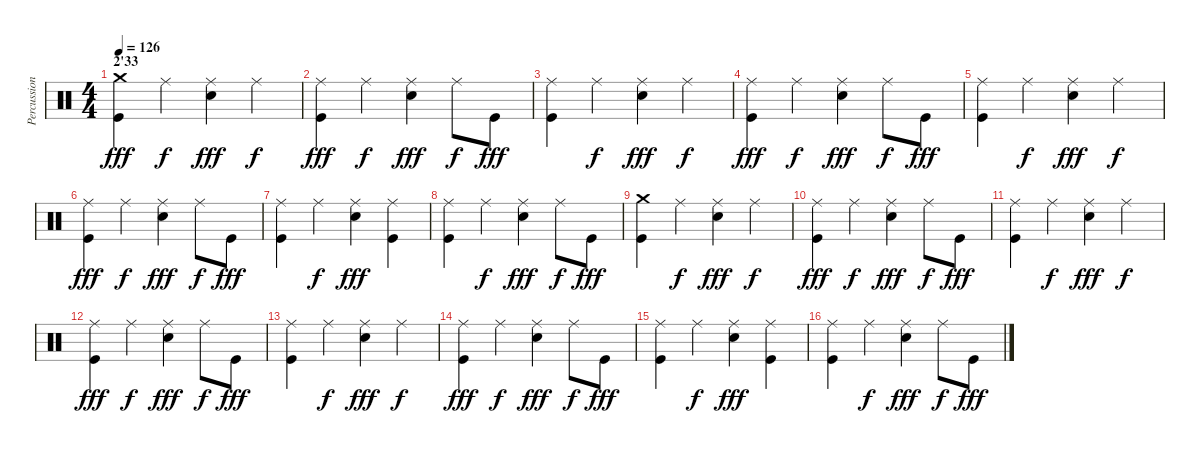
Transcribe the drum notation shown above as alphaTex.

\track ("Percussions" "Percussion") {instrument percussion}
\staff {score}
\articulation defaults
\ts (4 4)
\section ("" "2'33")
\tempo 126
\clef neutral
\ks c
("Crash medium (hit)" "Kick (hit)").4{dy fff} "Ride (middle)".4{dy f} ("Ride (middle)" "Electric Snare (hit)").4{dy fff} "Ride (middle)".4{dy f} |
("Ride (middle)" "Kick (hit)").4{dy fff} "Ride (middle)".4{dy f} ("Ride (middle)" "Electric Snare (hit)").4{dy fff} "Ride (middle)".8{dy f} "Kick (hit)".8{dy fff} |
("Ride (middle)" "Kick (hit)").4 "Ride (middle)".4{dy f} ("Ride (middle)" "Electric Snare (hit)").4{dy fff} "Ride (middle)".4{dy f} |
("Ride (middle)" "Kick (hit)").4{dy fff} "Ride (middle)".4{dy f} ("Ride (middle)" "Electric Snare (hit)").4{dy fff} "Ride (middle)".8{dy f} "Kick (hit)".8{dy fff} |
("Ride (middle)" "Kick (hit)").4 "Ride (middle)".4{dy f} ("Ride (middle)" "Electric Snare (hit)").4{dy fff} "Ride (middle)".4{dy f} |
("Ride (middle)" "Kick (hit)").4{dy fff} "Ride (middle)".4{dy f} ("Ride (middle)" "Electric Snare (hit)").4{dy fff} "Ride (middle)".8{dy f} "Kick (hit)".8{dy fff} |
("Ride (middle)" "Kick (hit)").4 "Ride (middle)".4{dy f} ("Ride (middle)" "Electric Snare (hit)").4{dy fff} ("Ride (middle)" "Kick (hit)").4 |
("Ride (middle)" "Kick (hit)").4 "Ride (middle)".4{dy f} ("Ride (middle)" "Electric Snare (hit)").4{dy fff} "Ride (middle)".8{dy f} "Kick (hit)".8{dy fff} |
("Crash medium (hit)" "Kick (hit)").4 "Ride (middle)".4{dy f} ("Ride (middle)" "Electric Snare (hit)").4{dy fff} "Ride (middle)".4{dy f} |
("Ride (middle)" "Kick (hit)").4{dy fff} "Ride (middle)".4{dy f} ("Ride (middle)" "Electric Snare (hit)").4{dy fff} "Ride (middle)".8{dy f} "Kick (hit)".8{dy fff} |
("Ride (middle)" "Kick (hit)").4 "Ride (middle)".4{dy f} ("Ride (middle)" "Electric Snare (hit)").4{dy fff} "Ride (middle)".4{dy f} |
("Ride (middle)" "Kick (hit)").4{dy fff} "Ride (middle)".4{dy f} ("Ride (middle)" "Electric Snare (hit)").4{dy fff} "Ride (middle)".8{dy f} "Kick (hit)".8{dy fff} |
("Ride (middle)" "Kick (hit)").4 "Ride (middle)".4{dy f} ("Ride (middle)" "Electric Snare (hit)").4{dy fff} "Ride (middle)".4{dy f} |
("Ride (middle)" "Kick (hit)").4{dy fff} "Ride (middle)".4{dy f} ("Ride (middle)" "Electric Snare (hit)").4{dy fff} "Ride (middle)".8{dy f} "Kick (hit)".8{dy fff} |
("Ride (middle)" "Kick (hit)").4 "Ride (middle)".4{dy f} ("Ride (middle)" "Electric Snare (hit)").4{dy fff} ("Ride (middle)" "Kick (hit)").4 |
("Ride (middle)" "Kick (hit)").4 "Ride (middle)".4{dy f} ("Ride (middle)" "Electric Snare (hit)").4{dy fff} "Ride (middle)".8{dy f} "Kick (hit)".8{dy fff}
